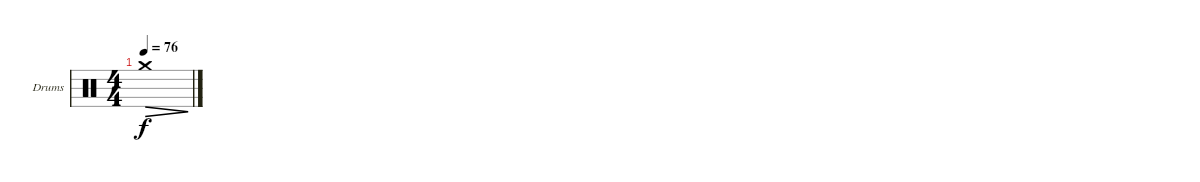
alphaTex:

\defaultSystemsLayout 4
\bracketExtendMode groupsimilarinstruments
\firstSystemTrackNameOrientation horizontal
\otherSystemsTrackNameOrientation horizontal
\track ("Drums" "Drums") {instrument percussion}
\staff {score}
\articulation defaults
\ts (4 4)
\tempo 76
\clef neutral
\ks c "Crash medium (hit)".1{dec dy f}
